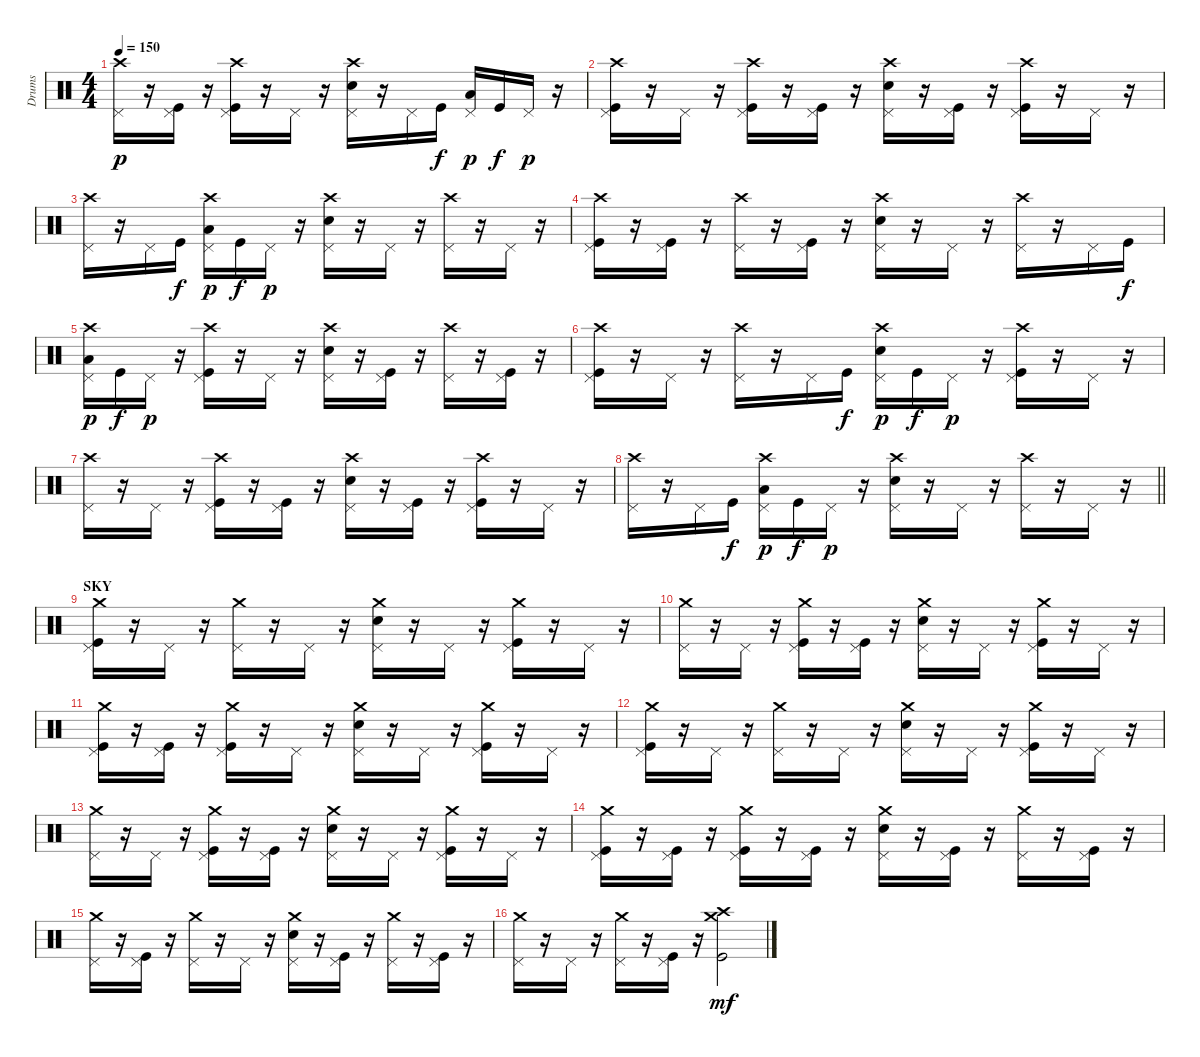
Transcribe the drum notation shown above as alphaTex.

\track ("Drums" "Drums") {instrument percussion}
\staff {score}
\articulation defaults
\ts (4 4)
\tempo 150
\clef neutral
\ks c
("Crash high (hit)" "Pedal Hi-Hat (hit)").16{dy p} r.16 ("Pedal Hi-Hat (hit)" "Kick (hit)").16 r.16 ("Crash high (hit)" "Pedal Hi-Hat (hit)" "Kick (hit)").16 r.16 "Pedal Hi-Hat (hit)".16 r.16 ("Crash high (hit)" "Pedal Hi-Hat (hit)" "Electric Snare (hit)").16 r.16 "Pedal Hi-Hat (hit)".16 "Kick (hit)".16{dy f} ("Pedal Hi-Hat (hit)" "Low Floor Tom (hit)").16{dy p} "Kick (hit)".16{dy f} "Pedal Hi-Hat (hit)".16{dy p} r.16 |
("Crash high (hit)" "Pedal Hi-Hat (hit)" "Kick (hit)").16 r.16 "Pedal Hi-Hat (hit)".16 r.16 ("Crash high (hit)" "Pedal Hi-Hat (hit)" "Kick (hit)").16 r.16 ("Pedal Hi-Hat (hit)" "Kick (hit)").16 r.16 ("Crash high (hit)" "Pedal Hi-Hat (hit)" "Electric Snare (hit)").16 r.16 ("Pedal Hi-Hat (hit)" "Kick (hit)").16 r.16 ("Crash high (hit)" "Pedal Hi-Hat (hit)" "Kick (hit)").16 r.16 "Pedal Hi-Hat (hit)".16 r.16 |
("Crash high (hit)" "Pedal Hi-Hat (hit)").16 r.16 "Pedal Hi-Hat (hit)".16 "Kick (hit)".16{dy f} ("Crash high (hit)" "Pedal Hi-Hat (hit)" "Low Floor Tom (hit)").16{dy p} "Kick (hit)".16{dy f} "Pedal Hi-Hat (hit)".16{dy p} r.16 ("Crash high (hit)" "Pedal Hi-Hat (hit)" "Electric Snare (hit)").16 r.16 "Pedal Hi-Hat (hit)".16 r.16 ("Crash high (hit)" "Pedal Hi-Hat (hit)").16 r.16 "Pedal Hi-Hat (hit)".16 r.16 |
("Crash high (hit)" "Pedal Hi-Hat (hit)" "Kick (hit)").16 r.16 ("Pedal Hi-Hat (hit)" "Kick (hit)").16 r.16 ("Crash high (hit)" "Pedal Hi-Hat (hit)").16 r.16 ("Pedal Hi-Hat (hit)" "Kick (hit)").16 r.16 ("Crash high (hit)" "Pedal Hi-Hat (hit)" "Electric Snare (hit)").16 r.16 "Pedal Hi-Hat (hit)".16 r.16 ("Crash high (hit)" "Pedal Hi-Hat (hit)").16 r.16 "Pedal Hi-Hat (hit)".16 "Kick (hit)".16{dy f} |
("Crash high (hit)" "Pedal Hi-Hat (hit)" "Low Floor Tom (hit)").16{dy p} "Kick (hit)".16{dy f} "Pedal Hi-Hat (hit)".16{dy p} r.16 ("Crash high (hit)" "Pedal Hi-Hat (hit)" "Kick (hit)").16 r.16 "Pedal Hi-Hat (hit)".16 r.16 ("Crash high (hit)" "Pedal Hi-Hat (hit)" "Electric Snare (hit)").16 r.16 ("Pedal Hi-Hat (hit)" "Kick (hit)").16 r.16 ("Crash high (hit)" "Pedal Hi-Hat (hit)").16 r.16 ("Pedal Hi-Hat (hit)" "Kick (hit)").16 r.16 |
("Crash high (hit)" "Pedal Hi-Hat (hit)" "Kick (hit)").16 r.16 "Pedal Hi-Hat (hit)".16 r.16 ("Crash high (hit)" "Pedal Hi-Hat (hit)").16 r.16 "Pedal Hi-Hat (hit)".16 "Kick (hit)".16{dy f} ("Crash high (hit)" "Pedal Hi-Hat (hit)" "Electric Snare (hit)").16{dy p} "Kick (hit)".16{dy f} "Pedal Hi-Hat (hit)".16{dy p} r.16 ("Crash high (hit)" "Pedal Hi-Hat (hit)" "Kick (hit)").16 r.16 "Pedal Hi-Hat (hit)".16 r.16 |
("Crash high (hit)" "Pedal Hi-Hat (hit)").16 r.16 "Pedal Hi-Hat (hit)".16 r.16 ("Crash high (hit)" "Pedal Hi-Hat (hit)" "Kick (hit)").16 r.16 ("Pedal Hi-Hat (hit)" "Kick (hit)").16 r.16 ("Crash high (hit)" "Pedal Hi-Hat (hit)" "Electric Snare (hit)").16 r.16 ("Pedal Hi-Hat (hit)" "Kick (hit)").16 r.16 ("Crash high (hit)" "Pedal Hi-Hat (hit)" "Kick (hit)").16 r.16 "Pedal Hi-Hat (hit)".16 r.16 |
\barLineRight lightlight
("Crash high (hit)" "Pedal Hi-Hat (hit)").16 r.16 "Pedal Hi-Hat (hit)".16 "Kick (hit)".16{dy f} ("Crash high (hit)" "Pedal Hi-Hat (hit)" "Low Floor Tom (hit)").16{dy p} "Kick (hit)".16{dy f} "Pedal Hi-Hat (hit)".16{dy p} r.16 ("Crash high (hit)" "Pedal Hi-Hat (hit)" "Electric Snare (hit)").16 r.16 "Pedal Hi-Hat (hit)".16 r.16 ("Crash high (hit)" "Pedal Hi-Hat (hit)").16 r.16 "Pedal Hi-Hat (hit)".16 r.16 |
\section ("" "SKY")
("Crash medium (hit)" "Pedal Hi-Hat (hit)" "Kick (hit)").16 r.16 "Pedal Hi-Hat (hit)".16 r.16 ("Crash medium (hit)" "Pedal Hi-Hat (hit)").16 r.16 "Pedal Hi-Hat (hit)".16 r.16 ("Crash medium (hit)" "Pedal Hi-Hat (hit)" "Electric Snare (hit)").16 r.16 "Pedal Hi-Hat (hit)".16 r.16 ("Crash medium (hit)" "Pedal Hi-Hat (hit)" "Kick (hit)").16 r.16 "Pedal Hi-Hat (hit)".16 r.16 |
("Crash medium (hit)" "Pedal Hi-Hat (hit)").16 r.16 "Pedal Hi-Hat (hit)".16 r.16 ("Crash medium (hit)" "Pedal Hi-Hat (hit)" "Kick (hit)").16 r.16 ("Pedal Hi-Hat (hit)" "Kick (hit)").16 r.16 ("Crash medium (hit)" "Pedal Hi-Hat (hit)" "Electric Snare (hit)").16 r.16 "Pedal Hi-Hat (hit)".16 r.16 ("Crash medium (hit)" "Pedal Hi-Hat (hit)" "Kick (hit)").16 r.16 "Pedal Hi-Hat (hit)".16 r.16 |
("Crash medium (hit)" "Pedal Hi-Hat (hit)" "Kick (hit)").16 r.16 ("Pedal Hi-Hat (hit)" "Kick (hit)").16 r.16 ("Crash medium (hit)" "Pedal Hi-Hat (hit)" "Kick (hit)").16 r.16 "Pedal Hi-Hat (hit)".16 r.16 ("Crash medium (hit)" "Pedal Hi-Hat (hit)" "Electric Snare (hit)").16 r.16 "Pedal Hi-Hat (hit)".16 r.16 ("Crash medium (hit)" "Pedal Hi-Hat (hit)" "Kick (hit)").16 r.16 "Pedal Hi-Hat (hit)".16 r.16 |
("Crash medium (hit)" "Pedal Hi-Hat (hit)" "Kick (hit)").16 r.16 "Pedal Hi-Hat (hit)".16 r.16 ("Crash medium (hit)" "Pedal Hi-Hat (hit)").16 r.16 "Pedal Hi-Hat (hit)".16 r.16 ("Crash medium (hit)" "Pedal Hi-Hat (hit)" "Electric Snare (hit)").16 r.16 "Pedal Hi-Hat (hit)".16 r.16 ("Crash medium (hit)" "Pedal Hi-Hat (hit)" "Kick (hit)").16 r.16 "Pedal Hi-Hat (hit)".16 r.16 |
("Crash medium (hit)" "Pedal Hi-Hat (hit)").16 r.16 "Pedal Hi-Hat (hit)".16 r.16 ("Crash medium (hit)" "Pedal Hi-Hat (hit)" "Kick (hit)").16 r.16 ("Pedal Hi-Hat (hit)" "Kick (hit)").16 r.16 ("Crash medium (hit)" "Pedal Hi-Hat (hit)" "Electric Snare (hit)").16 r.16 "Pedal Hi-Hat (hit)".16 r.16 ("Crash medium (hit)" "Pedal Hi-Hat (hit)" "Kick (hit)").16 r.16 "Pedal Hi-Hat (hit)".16 r.16 |
("Crash medium (hit)" "Pedal Hi-Hat (hit)" "Kick (hit)").16 r.16 ("Pedal Hi-Hat (hit)" "Kick (hit)").16 r.16 ("Crash medium (hit)" "Pedal Hi-Hat (hit)" "Kick (hit)").16 r.16 ("Pedal Hi-Hat (hit)" "Kick (hit)").16 r.16 ("Crash medium (hit)" "Pedal Hi-Hat (hit)" "Electric Snare (hit)").16 r.16 ("Pedal Hi-Hat (hit)" "Kick (hit)").16 r.16 ("Crash medium (hit)" "Pedal Hi-Hat (hit)").16 r.16 ("Pedal Hi-Hat (hit)" "Kick (hit)").16 r.16 |
("Crash medium (hit)" "Pedal Hi-Hat (hit)").16 r.16 ("Pedal Hi-Hat (hit)" "Kick (hit)").16 r.16 ("Crash medium (hit)" "Pedal Hi-Hat (hit)").16 r.16 "Pedal Hi-Hat (hit)".16 r.16 ("Crash medium (hit)" "Pedal Hi-Hat (hit)" "Electric Snare (hit)").16 r.16 ("Pedal Hi-Hat (hit)" "Kick (hit)").16 r.16 ("Crash medium (hit)" "Pedal Hi-Hat (hit)").16 r.16 ("Pedal Hi-Hat (hit)" "Kick (hit)").16 r.16 |
("Crash medium (hit)" "Pedal Hi-Hat (hit)").16 r.16 "Pedal Hi-Hat (hit)".16 r.16 ("Crash medium (hit)" "Pedal Hi-Hat (hit)").16 r.16 ("Pedal Hi-Hat (hit)" "Kick (hit)").16 r.16 ("Crash medium (hit)" "Crash high (hit)" "Kick (hit)").2{dy mf}
